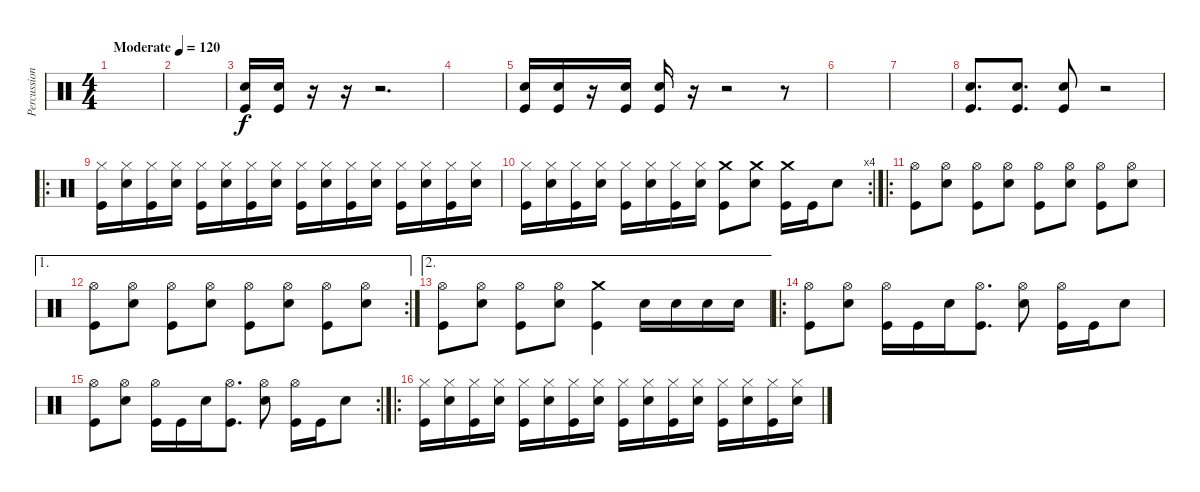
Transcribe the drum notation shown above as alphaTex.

\track ("Percussion" "Percussion") {instrument percussion}
\staff {score}
\articulation defaults
\ts (4 4)
\tempo (120 "Moderate")
\clef neutral
\ks c
|
|
("Snare (hit) 2" "Kick (hit)").16 ("Snare (hit) 2" "Kick (hit)").16 r.16 r.16 r.2{d} |
|
("Snare (hit) 2" "Kick (hit)").16 ("Snare (hit) 2" "Kick (hit)").16 r.16 ("Snare (hit) 2" "Kick (hit)").16 ("Snare (hit) 2" "Kick (hit)").16 r.16 r.2 r.8 |
|
|
("Snare (hit) 2" "Kick (hit)").8{d} ("Snare (hit) 2" "Kick (hit)").8{d} ("Snare (hit) 2" "Kick (hit)").8 r.2 |
\ro
("Hi-Hat (closed)" "Kick (hit)").16 ("Hi-Hat (closed)" "Snare (hit) 2").16 ("Hi-Hat (closed)" "Kick (hit)").16 ("Hi-Hat (closed)" "Snare (hit) 2").16 ("Hi-Hat (closed)" "Kick (hit)").16 ("Hi-Hat (closed)" "Snare (hit) 2").16 ("Hi-Hat (closed)" "Kick (hit)").16 ("Hi-Hat (closed)" "Snare (hit) 2").16 ("Hi-Hat (closed)" "Kick (hit)").16 ("Hi-Hat (closed)" "Snare (hit) 2").16 ("Hi-Hat (closed)" "Kick (hit)").16 ("Hi-Hat (closed)" "Snare (hit) 2").16 ("Hi-Hat (closed)" "Kick (hit)").16 ("Hi-Hat (closed)" "Snare (hit) 2").16 ("Hi-Hat (closed)" "Kick (hit)").16 ("Hi-Hat (closed)" "Snare (hit) 2").16 |
\rc 4
("Hi-Hat (closed)" "Kick (hit)").16 ("Hi-Hat (closed)" "Snare (hit) 2").16 ("Hi-Hat (closed)" "Kick (hit)").16 ("Hi-Hat (closed)" "Snare (hit) 2").16 ("Hi-Hat (closed)" "Kick (hit)").16 ("Hi-Hat (closed)" "Snare (hit) 2").16 ("Hi-Hat (closed)" "Kick (hit)").16 ("Hi-Hat (closed)" "Snare (hit) 2").16 ("Crash medium (hit)" "Kick (hit)").8 ("Crash medium (hit)" "Snare (hit) 2").8 ("Crash medium (hit)" "Kick (hit)").16 "Kick (hit)".16 "Snare (hit) 2".8 |
\ro
("Hi-Hat (open)" "Kick (hit)").8 ("Hi-Hat (open)" "Snare (hit) 2").8 ("Hi-Hat (open)" "Kick (hit)").8 ("Hi-Hat (open)" "Snare (hit) 2").8 ("Hi-Hat (open)" "Kick (hit)").8 ("Hi-Hat (open)" "Snare (hit) 2").8 ("Hi-Hat (open)" "Kick (hit)").8 ("Hi-Hat (open)" "Snare (hit) 2").8 |
\ae 1
\rc 2
("Hi-Hat (open)" "Kick (hit)").8 ("Hi-Hat (open)" "Snare (hit) 2").8 ("Hi-Hat (open)" "Kick (hit)").8 ("Hi-Hat (open)" "Snare (hit) 2").8 ("Hi-Hat (open)" "Kick (hit)").8 ("Hi-Hat (open)" "Snare (hit) 2").8 ("Hi-Hat (open)" "Kick (hit)").8 ("Hi-Hat (open)" "Snare (hit) 2").8 |
\ae 2
("Hi-Hat (open)" "Kick (hit)").8 ("Hi-Hat (open)" "Snare (hit) 2").8 ("Hi-Hat (open)" "Kick (hit)").8 ("Hi-Hat (open)" "Snare (hit) 2").8 ("Crash medium (hit)" "Kick (hit)").4 "Snare (hit) 2".16 "Snare (hit) 2".16 "Snare (hit) 2".16 "Snare (hit) 2".16 |
\ro
("Hi-Hat (open)" "Kick (hit)").8 ("Hi-Hat (open)" "Snare (hit) 2").8 ("Hi-Hat (open)" "Kick (hit)").16 "Kick (hit)".16 "Snare (hit) 2".16 ("Hi-Hat (open)" "Kick (hit)").8{d} ("Hi-Hat (open)" "Snare (hit) 2").8 ("Hi-Hat (open)" "Kick (hit)").16 "Kick (hit)".16 "Snare (hit) 2".8 |
\rc 2
("Hi-Hat (open)" "Kick (hit)").8 ("Hi-Hat (open)" "Snare (hit) 2").8 ("Hi-Hat (open)" "Kick (hit)").16 "Kick (hit)".16 "Snare (hit) 2".16 ("Hi-Hat (open)" "Kick (hit)").8{d} ("Hi-Hat (open)" "Snare (hit) 2").8 ("Hi-Hat (open)" "Kick (hit)").16 "Kick (hit)".16 "Snare (hit) 2".8 |
\ro
("Hi-Hat (closed)" "Kick (hit)").16 ("Hi-Hat (closed)" "Snare (hit) 2").16 ("Hi-Hat (closed)" "Kick (hit)").16 ("Hi-Hat (closed)" "Snare (hit) 2").16 ("Hi-Hat (closed)" "Kick (hit)").16 ("Hi-Hat (closed)" "Snare (hit) 2").16 ("Hi-Hat (closed)" "Kick (hit)").16 ("Hi-Hat (closed)" "Snare (hit) 2").16 ("Hi-Hat (closed)" "Kick (hit)").16 ("Hi-Hat (closed)" "Snare (hit) 2").16 ("Hi-Hat (closed)" "Kick (hit)").16 ("Hi-Hat (closed)" "Snare (hit) 2").16 ("Hi-Hat (closed)" "Kick (hit)").16 ("Hi-Hat (closed)" "Snare (hit) 2").16 ("Hi-Hat (closed)" "Kick (hit)").16 ("Hi-Hat (closed)" "Snare (hit) 2").16
